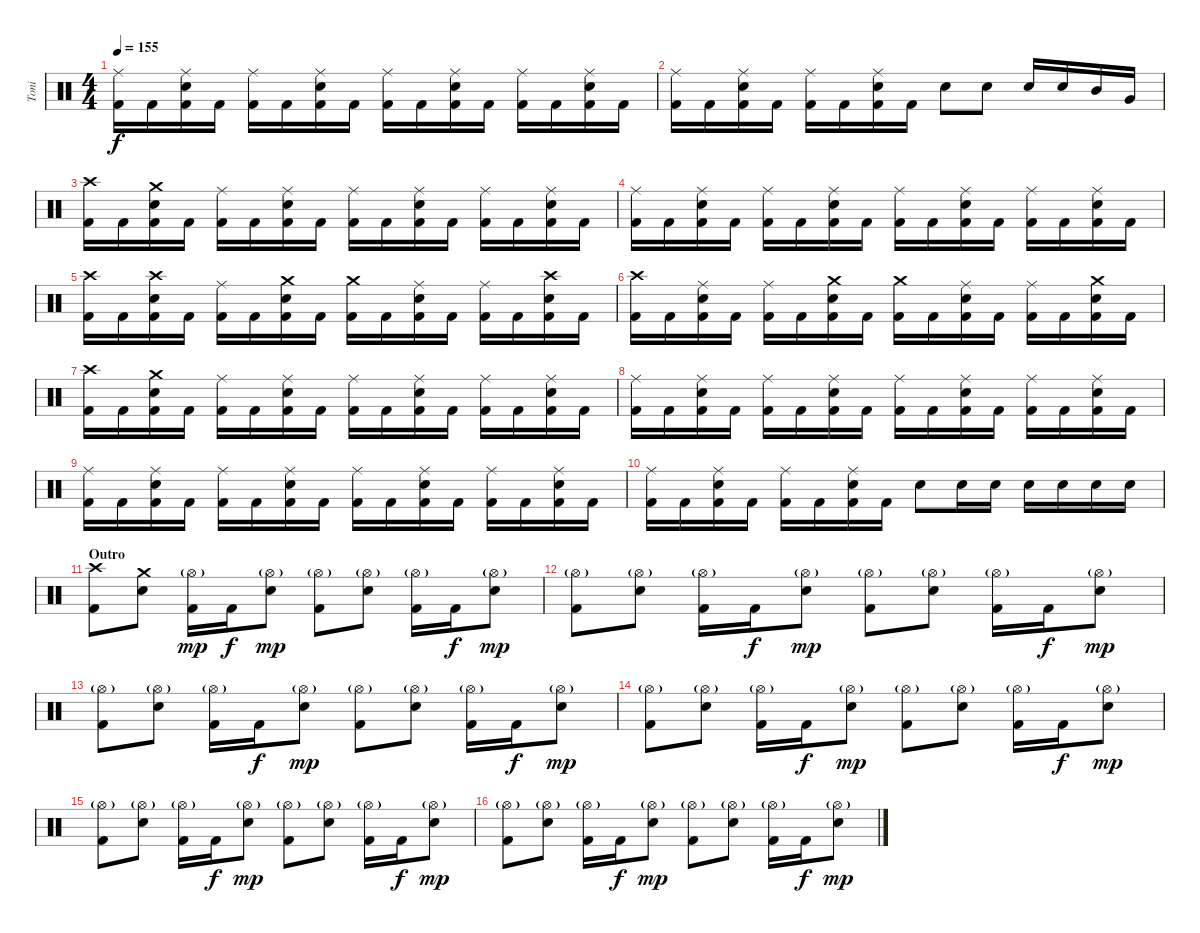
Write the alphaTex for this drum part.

\track ("Toni" "Toni") {instrument percussion}
\staff {score}
\articulation defaults
\ts (4 4)
\tempo 155
\clef neutral
\ks c
("Ride (middle)" "Kick (hit) 2").16{dy f} "Kick (hit) 2".16 ("Ride (middle)" "Electric Snare (hit)" "Kick (hit) 2").16 "Kick (hit) 2".16 ("Ride (middle)" "Kick (hit) 2").16 "Kick (hit) 2".16 ("Ride (middle)" "Electric Snare (hit)" "Kick (hit) 2").16 "Kick (hit) 2".16 ("Ride (middle)" "Kick (hit) 2").16 "Kick (hit) 2".16 ("Ride (middle)" "Electric Snare (hit)" "Kick (hit) 2").16 "Kick (hit) 2".16 ("Ride (middle)" "Kick (hit) 2").16 "Kick (hit) 2".16 ("Ride (middle)" "Electric Snare (hit)" "Kick (hit) 2").16 "Kick (hit) 2".16 |
("Ride (middle)" "Kick (hit) 2").16 "Kick (hit) 2".16 ("Ride (middle)" "Electric Snare (hit)" "Kick (hit) 2").16 "Kick (hit) 2".16 ("Ride (middle)" "Kick (hit) 2").16 "Kick (hit) 2".16 ("Ride (middle)" "Electric Snare (hit)" "Kick (hit) 2").16 "Kick (hit) 2".16 "Electric Snare (hit)".8 "Electric Snare (hit)".8 "Electric Snare (hit)".16 "Electric Snare (hit)".16 "Mid Tom (hit)".16 "Very Low Tom (hit)".16 |
("Crash high (hit)" "Kick (hit) 2").16 "Kick (hit) 2".16 ("Crash medium (hit)" "Electric Snare (hit)" "Kick (hit) 2").16 "Kick (hit) 2".16 ("Ride (middle)" "Kick (hit) 2").16 "Kick (hit) 2".16 ("Ride (middle)" "Electric Snare (hit)" "Kick (hit) 2").16 "Kick (hit) 2".16 ("Ride (middle)" "Kick (hit) 2").16 "Kick (hit) 2".16 ("Ride (middle)" "Electric Snare (hit)" "Kick (hit) 2").16 "Kick (hit) 2".16 ("Ride (middle)" "Kick (hit) 2").16 "Kick (hit) 2".16 ("Ride (middle)" "Electric Snare (hit)" "Kick (hit) 2").16 "Kick (hit) 2".16 |
("Ride (middle)" "Kick (hit) 2").16 "Kick (hit) 2".16 ("Ride (middle)" "Electric Snare (hit)" "Kick (hit) 2").16 "Kick (hit) 2".16 ("Ride (middle)" "Kick (hit) 2").16 "Kick (hit) 2".16 ("Ride (middle)" "Electric Snare (hit)" "Kick (hit) 2").16 "Kick (hit) 2".16 ("Ride (middle)" "Kick (hit) 2").16 "Kick (hit) 2".16 ("Ride (middle)" "Electric Snare (hit)" "Kick (hit) 2").16 "Kick (hit) 2".16 ("Ride (middle)" "Kick (hit) 2").16 "Kick (hit) 2".16 ("Ride (middle)" "Electric Snare (hit)" "Kick (hit) 2").16 "Kick (hit) 2".16 |
("Crash high (hit)" "Kick (hit) 2").16 "Kick (hit) 2".16 ("Crash high (hit)" "Electric Snare (hit)" "Kick (hit) 2").16 "Kick (hit) 2".16 ("Ride (middle)" "Kick (hit) 2").16 "Kick (hit) 2".16 ("Crash medium (hit)" "Electric Snare (hit)" "Kick (hit) 2").16 "Kick (hit) 2".16 ("Crash medium (hit)" "Kick (hit) 2").16 "Kick (hit) 2".16 ("Ride (middle)" "Electric Snare (hit)" "Kick (hit) 2").16 "Kick (hit) 2".16 ("Ride (middle)" "Kick (hit) 2").16 "Kick (hit) 2".16 ("Crash high (hit)" "Electric Snare (hit)" "Kick (hit) 2").16 "Kick (hit) 2".16 |
("Crash high (hit)" "Kick (hit) 2").16 "Kick (hit) 2".16 ("Ride (middle)" "Electric Snare (hit)" "Kick (hit) 2").16 "Kick (hit) 2".16 ("Ride (middle)" "Kick (hit) 2").16 "Kick (hit) 2".16 ("Crash medium (hit)" "Electric Snare (hit)" "Kick (hit) 2").16 "Kick (hit) 2".16 ("Crash medium (hit)" "Kick (hit) 2").16 "Kick (hit) 2".16 ("Ride (middle)" "Electric Snare (hit)" "Kick (hit) 2").16 "Kick (hit) 2".16 ("Ride (middle)" "Kick (hit) 2").16 "Kick (hit) 2".16 ("Crash medium (hit)" "Electric Snare (hit)" "Kick (hit) 2").16 "Kick (hit) 2".16 |
("Crash high (hit)" "Kick (hit) 2").16 "Kick (hit) 2".16 ("Crash medium (hit)" "Electric Snare (hit)" "Kick (hit) 2").16 "Kick (hit) 2".16 ("Ride (middle)" "Kick (hit) 2").16 "Kick (hit) 2".16 ("Ride (middle)" "Electric Snare (hit)" "Kick (hit) 2").16 "Kick (hit) 2".16 ("Ride (middle)" "Kick (hit) 2").16 "Kick (hit) 2".16 ("Ride (middle)" "Electric Snare (hit)" "Kick (hit) 2").16 "Kick (hit) 2".16 ("Ride (middle)" "Kick (hit) 2").16 "Kick (hit) 2".16 ("Ride (middle)" "Electric Snare (hit)" "Kick (hit) 2").16 "Kick (hit) 2".16 |
("Ride (middle)" "Kick (hit) 2").16 "Kick (hit) 2".16 ("Ride (middle)" "Electric Snare (hit)" "Kick (hit) 2").16 "Kick (hit) 2".16 ("Ride (middle)" "Kick (hit) 2").16 "Kick (hit) 2".16 ("Ride (middle)" "Electric Snare (hit)" "Kick (hit) 2").16 "Kick (hit) 2".16 ("Ride (middle)" "Kick (hit) 2").16 "Kick (hit) 2".16 ("Ride (middle)" "Electric Snare (hit)" "Kick (hit) 2").16 "Kick (hit) 2".16 ("Ride (middle)" "Kick (hit) 2").16 "Kick (hit) 2".16 ("Ride (middle)" "Electric Snare (hit)" "Kick (hit) 2").16 "Kick (hit) 2".16 |
("Ride (middle)" "Kick (hit) 2").16 "Kick (hit) 2".16 ("Ride (middle)" "Electric Snare (hit)" "Kick (hit) 2").16 "Kick (hit) 2".16 ("Ride (middle)" "Kick (hit) 2").16 "Kick (hit) 2".16 ("Ride (middle)" "Electric Snare (hit)" "Kick (hit) 2").16 "Kick (hit) 2".16 ("Ride (middle)" "Kick (hit) 2").16 "Kick (hit) 2".16 ("Ride (middle)" "Electric Snare (hit)" "Kick (hit) 2").16 "Kick (hit) 2".16 ("Ride (middle)" "Kick (hit) 2").16 "Kick (hit) 2".16 ("Ride (middle)" "Electric Snare (hit)" "Kick (hit) 2").16 "Kick (hit) 2".16 |
("Ride (middle)" "Kick (hit) 2").16 "Kick (hit) 2".16 ("Ride (middle)" "Electric Snare (hit)" "Kick (hit) 2").16 "Kick (hit) 2".16 ("Ride (middle)" "Kick (hit) 2").16 "Kick (hit) 2".16 ("Ride (middle)" "Electric Snare (hit)" "Kick (hit) 2").16 "Kick (hit) 2".16 "Electric Snare (hit)".8 "Electric Snare (hit)".16 "Electric Snare (hit)".16 "Electric Snare (hit)".16 "Electric Snare (hit)".16 "Electric Snare (hit)".16 "Electric Snare (hit)".16 |
\section ("" "Outro")
("Crash high (hit)" "Kick (hit) 2").8 ("Crash medium (hit)" "Electric Snare (hit)").8 ("Hi-Hat (open)"{g} "Kick (hit) 2").16{dy mp} "Kick (hit) 2".16{dy f} ("Hi-Hat (open)"{g} "Electric Snare (hit)").8{dy mp} ("Hi-Hat (open)"{g} "Kick (hit) 2").8 ("Hi-Hat (open)"{g} "Electric Snare (hit)").8 ("Hi-Hat (open)"{g} "Kick (hit) 2").16 "Kick (hit) 2".16{dy f} ("Hi-Hat (open)"{g} "Electric Snare (hit)").8{dy mp} |
("Hi-Hat (open)"{g} "Kick (hit) 2").8 ("Hi-Hat (open)"{g} "Electric Snare (hit)").8 ("Hi-Hat (open)"{g} "Kick (hit) 2").16 "Kick (hit) 2".16{dy f} ("Hi-Hat (open)"{g} "Electric Snare (hit)").8{dy mp} ("Hi-Hat (open)"{g} "Kick (hit) 2").8 ("Hi-Hat (open)"{g} "Electric Snare (hit)").8 ("Hi-Hat (open)"{g} "Kick (hit) 2").16 "Kick (hit) 2".16{dy f} ("Hi-Hat (open)"{g} "Electric Snare (hit)").8{dy mp} |
("Hi-Hat (open)"{g} "Kick (hit) 2").8 ("Hi-Hat (open)"{g} "Electric Snare (hit)").8 ("Hi-Hat (open)"{g} "Kick (hit) 2").16 "Kick (hit) 2".16{dy f} ("Hi-Hat (open)"{g} "Electric Snare (hit)").8{dy mp} ("Hi-Hat (open)"{g} "Kick (hit) 2").8 ("Hi-Hat (open)"{g} "Electric Snare (hit)").8 ("Hi-Hat (open)"{g} "Kick (hit) 2").16 "Kick (hit) 2".16{dy f} ("Hi-Hat (open)"{g} "Electric Snare (hit)").8{dy mp} |
("Hi-Hat (open)"{g} "Kick (hit) 2").8 ("Hi-Hat (open)"{g} "Electric Snare (hit)").8 ("Hi-Hat (open)"{g} "Kick (hit) 2").16 "Kick (hit) 2".16{dy f} ("Hi-Hat (open)"{g} "Electric Snare (hit)").8{dy mp} ("Hi-Hat (open)"{g} "Kick (hit) 2").8 ("Hi-Hat (open)"{g} "Electric Snare (hit)").8 ("Hi-Hat (open)"{g} "Kick (hit) 2").16 "Kick (hit) 2".16{dy f} ("Hi-Hat (open)"{g} "Electric Snare (hit)").8{dy mp} |
("Hi-Hat (open)"{g} "Kick (hit) 2").8 ("Hi-Hat (open)"{g} "Electric Snare (hit)").8 ("Hi-Hat (open)"{g} "Kick (hit) 2").16 "Kick (hit) 2".16{dy f} ("Hi-Hat (open)"{g} "Electric Snare (hit)").8{dy mp} ("Hi-Hat (open)"{g} "Kick (hit) 2").8 ("Hi-Hat (open)"{g} "Electric Snare (hit)").8 ("Hi-Hat (open)"{g} "Kick (hit) 2").16 "Kick (hit) 2".16{dy f} ("Hi-Hat (open)"{g} "Electric Snare (hit)").8{dy mp} |
("Hi-Hat (open)"{g} "Kick (hit) 2").8 ("Hi-Hat (open)"{g} "Electric Snare (hit)").8 ("Hi-Hat (open)"{g} "Kick (hit) 2").16 "Kick (hit) 2".16{dy f} ("Hi-Hat (open)"{g} "Electric Snare (hit)").8{dy mp} ("Hi-Hat (open)"{g} "Kick (hit) 2").8 ("Hi-Hat (open)"{g} "Electric Snare (hit)").8 ("Hi-Hat (open)"{g} "Kick (hit) 2").16 "Kick (hit) 2".16{dy f} ("Hi-Hat (open)"{g} "Electric Snare (hit)").8{dy mp}
